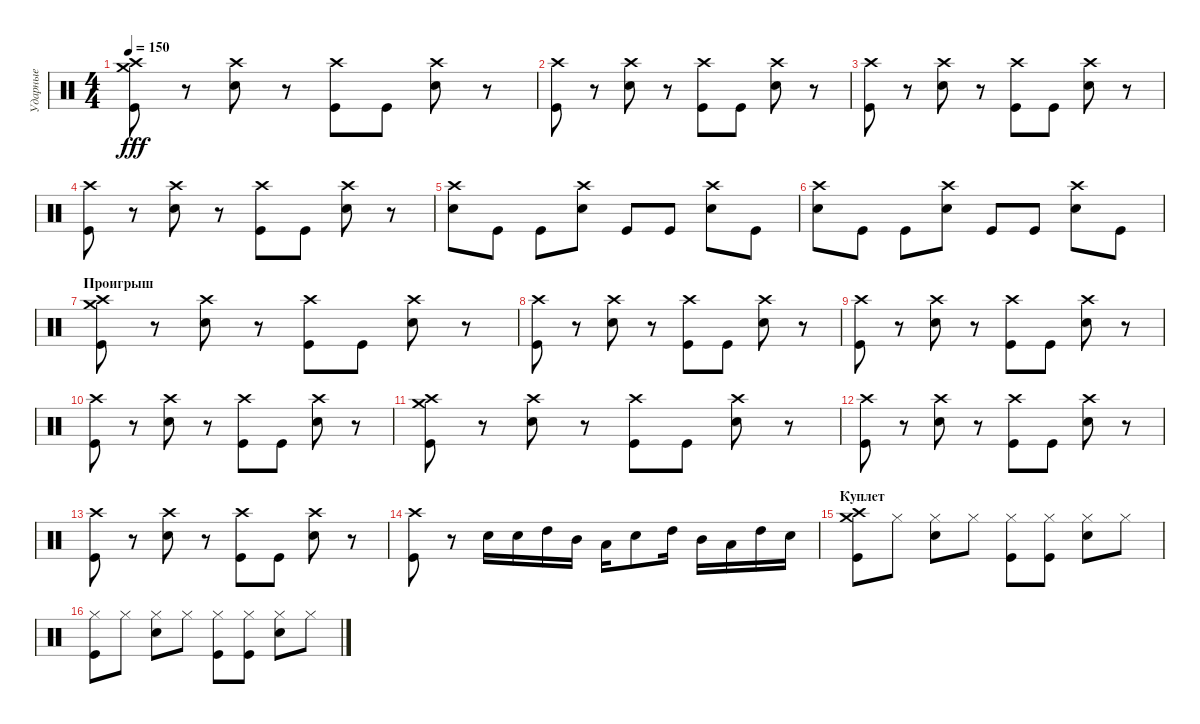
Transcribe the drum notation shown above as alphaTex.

\track ("Ударные" "Ударные") {instrument percussion}
\staff {score}
\articulation defaults
\ts (4 4)
\tempo 150
\clef neutral
\ks c
("Crash high (hit)" "Kick (hit)" "Crash medium (hit)").8{dy fff} r.8 ("Crash high (hit)" "Electric Snare (hit)").8 r.8 ("Crash high (hit)" "Kick (hit)").8 "Kick (hit)".8 ("Crash high (hit)" "Electric Snare (hit)").8 r.8 |
("Crash high (hit)" "Kick (hit)").8 r.8 ("Crash high (hit)" "Electric Snare (hit)").8 r.8 ("Crash high (hit)" "Kick (hit)").8 "Kick (hit)".8 ("Crash high (hit)" "Electric Snare (hit)").8 r.8 |
("Crash high (hit)" "Kick (hit)").8 r.8 ("Crash high (hit)" "Electric Snare (hit)").8 r.8 ("Crash high (hit)" "Kick (hit)").8 "Kick (hit)".8 ("Crash high (hit)" "Electric Snare (hit)").8 r.8 |
("Crash high (hit)" "Kick (hit)").8 r.8 ("Crash high (hit)" "Electric Snare (hit)").8 r.8 ("Crash high (hit)" "Kick (hit)").8 "Kick (hit)".8 ("Crash high (hit)" "Electric Snare (hit)").8 r.8 |
("Electric Snare (hit)" "Crash high (hit)").8 "Kick (hit)".8 "Kick (hit)".8 ("Electric Snare (hit)" "Crash high (hit)").8 "Kick (hit)".8 "Kick (hit)".8 ("Electric Snare (hit)" "Crash high (hit)").8 "Kick (hit)".8 |
("Electric Snare (hit)" "Crash high (hit)").8 "Kick (hit)".8 "Kick (hit)".8 ("Electric Snare (hit)" "Crash high (hit)").8 "Kick (hit)".8 "Kick (hit)".8 ("Electric Snare (hit)" "Crash high (hit)").8 "Kick (hit)".8 |
\section ("" "Проигрыш")
("Crash medium (hit)" "Crash high (hit)" "Kick (hit)").8 r.8 ("Crash high (hit)" "Electric Snare (hit)").8 r.8 ("Crash high (hit)" "Kick (hit)").8 "Kick (hit)".8 ("Crash high (hit)" "Electric Snare (hit)").8 r.8 |
("Crash high (hit)" "Kick (hit)").8 r.8 ("Crash high (hit)" "Electric Snare (hit)").8 r.8 ("Crash high (hit)" "Kick (hit)").8 "Kick (hit)".8 ("Crash high (hit)" "Electric Snare (hit)").8 r.8 |
("Crash high (hit)" "Kick (hit)").8 r.8 ("Crash high (hit)" "Electric Snare (hit)").8 r.8 ("Crash high (hit)" "Kick (hit)").8 "Kick (hit)".8 ("Crash high (hit)" "Electric Snare (hit)").8 r.8 |
("Crash high (hit)" "Kick (hit)").8 r.8 ("Crash high (hit)" "Electric Snare (hit)").8 r.8 ("Crash high (hit)" "Kick (hit)").8 "Kick (hit)".8 ("Crash high (hit)" "Electric Snare (hit)").8 r.8 |
("Crash medium (hit)" "Crash high (hit)" "Kick (hit)").8 r.8 ("Crash high (hit)" "Electric Snare (hit)").8 r.8 ("Crash high (hit)" "Kick (hit)").8 "Kick (hit)".8 ("Crash high (hit)" "Electric Snare (hit)").8 r.8 |
("Crash high (hit)" "Kick (hit)").8 r.8 ("Crash high (hit)" "Electric Snare (hit)").8 r.8 ("Crash high (hit)" "Kick (hit)").8 "Kick (hit)".8 ("Crash high (hit)" "Electric Snare (hit)").8 r.8 |
("Crash high (hit)" "Kick (hit)").8 r.8 ("Crash high (hit)" "Electric Snare (hit)").8 r.8 ("Crash high (hit)" "Kick (hit)").8 "Kick (hit)".8 ("Crash high (hit)" "Electric Snare (hit)").8 r.8 |
("Crash high (hit)" "Kick (hit)").8 r.8 "Electric Snare (hit)".16 "Electric Snare (hit)".16 "High Tom (hit)".16 "Mid Tom (hit)".16 "Low Tom (hit)".16 "Electric Snare (hit)".8 "High Tom (hit)".16 "Mid Tom (hit)".16 "Low Tom (hit)".16 "High Tom (hit)".16 "Electric Snare (hit)".16 |
\section ("" "Куплет")
("Crash medium (hit)" "Crash high (hit)" "Kick (hit)").8 "Hi-Hat (closed)".8 ("Hi-Hat (closed)" "Electric Snare (hit)").8 "Hi-Hat (closed)".8 ("Hi-Hat (closed)" "Kick (hit)").8 ("Hi-Hat (closed)" "Kick (hit)").8 ("Hi-Hat (closed)" "Electric Snare (hit)").8 "Hi-Hat (closed)".8 |
("Hi-Hat (closed)" "Kick (hit)").8 "Hi-Hat (closed)".8 ("Hi-Hat (closed)" "Electric Snare (hit)").8 "Hi-Hat (closed)".8 ("Hi-Hat (closed)" "Kick (hit)").8 ("Hi-Hat (closed)" "Kick (hit)").8 ("Hi-Hat (closed)" "Electric Snare (hit)").8 "Hi-Hat (closed)".8
